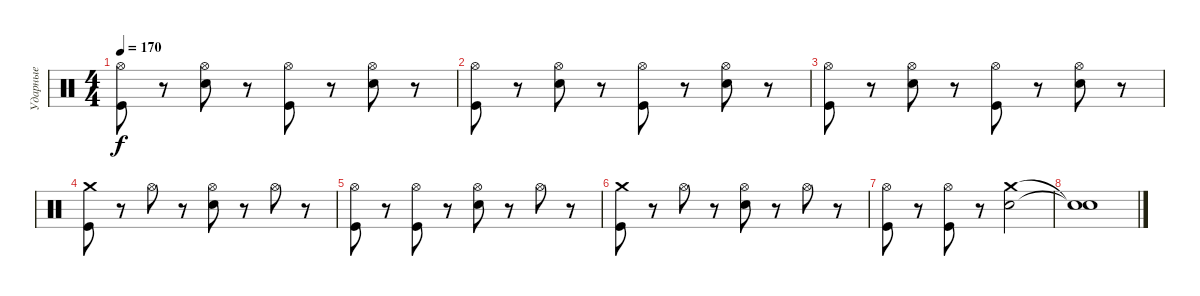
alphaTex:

\track ("Ударные" "Ударные") {instrument percussion}
\staff {score}
\articulation defaults
\ts (4 4)
\tempo 170
\clef neutral
\ks c
("Hi-Hat (open)" "Kick (hit)").8{dy f} r.8 ("Hi-Hat (open)" "Electric Snare (hit)").8 r.8 ("Hi-Hat (open)" "Kick (hit)").8 r.8 ("Hi-Hat (open)" "Electric Snare (hit)").8 r.8 |
("Hi-Hat (open)" "Kick (hit)").8 r.8 ("Hi-Hat (open)" "Electric Snare (hit)").8 r.8 ("Hi-Hat (open)" "Kick (hit)").8 r.8 ("Hi-Hat (open)" "Electric Snare (hit)").8 r.8 |
("Hi-Hat (open)" "Kick (hit)").8 r.8 ("Hi-Hat (open)" "Electric Snare (hit)").8 r.8 ("Hi-Hat (open)" "Kick (hit)").8 r.8 ("Hi-Hat (open)" "Electric Snare (hit)").8 r.8 |
("Crash medium (hit)" "Kick (hit)").8 r.8 "Hi-Hat (open)".8 r.8 ("Hi-Hat (open)" "Electric Snare (hit)").8 r.8 "Hi-Hat (open)".8 r.8 |
("Hi-Hat (open)" "Kick (hit)").8 r.8 ("Hi-Hat (open)" "Kick (hit)").8 r.8 ("Hi-Hat (open)" "Electric Snare (hit)").8 r.8 "Hi-Hat (open)".8 r.8 |
("Crash medium (hit)" "Kick (hit)").8 r.8 "Hi-Hat (open)".8 r.8 ("Hi-Hat (open)" "Electric Snare (hit)").8 r.8 "Hi-Hat (open)".8 r.8 |
("Hi-Hat (open)" "Kick (hit)").8 r.8 ("Hi-Hat (open)" "Kick (hit)").8 r.8 ("Crash medium (hit)" "Electric Snare (hit)").2 |
("Snare (hit)"{t} "Snare (hit)"{t}).1
